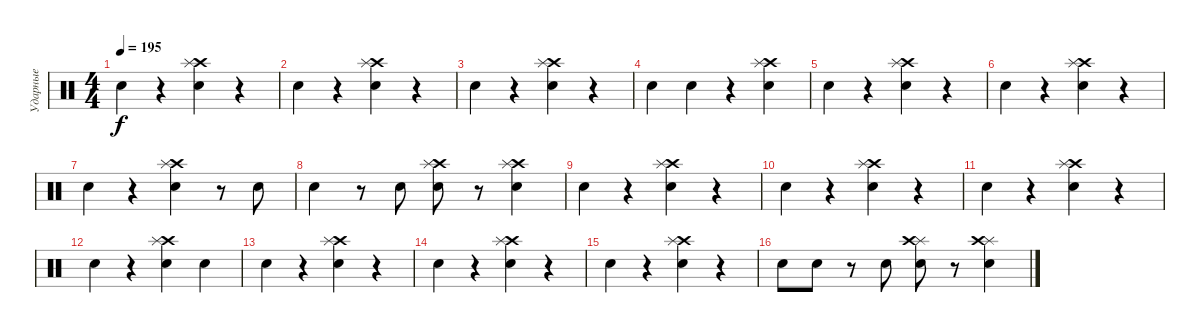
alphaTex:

\track ("Ударные" "Ударные") {instrument percussion}
\staff {score}
\articulation defaults
\ts (4 4)
\tempo 195
\clef neutral
\ks c "Snare (hit) 2".4{dy f}
r.4 ("Snare (hit) 2" "Crash high (hit)" "Splash (hit)").4 r.4 |
"Snare (hit) 2".4 r.4 ("Snare (hit) 2" "Crash high (hit)" "Splash (hit)").4 r.4 |
"Snare (hit) 2".4 r.4 ("Snare (hit) 2" "Crash high (hit)" "Splash (hit)").4 r.4 |
"Snare (hit) 2".4 "Snare (hit) 2".4 r.4 ("Snare (hit) 2" "Crash high (hit)" "Splash (hit)").4 |
"Snare (hit) 2".4 r.4 ("Snare (hit) 2" "Crash high (hit)" "Splash (hit)").4 r.4 |
"Snare (hit) 2".4 r.4 ("Snare (hit) 2" "Crash high (hit)" "Splash (hit)").4 r.4 |
"Snare (hit) 2".4 r.4 ("Snare (hit) 2" "Crash high (hit)" "Splash (hit)").4 r.8 "Snare (hit) 2".8 |
"Snare (hit) 2".4 r.8 "Snare (hit) 2".8 ("Snare (hit) 2" "Crash high (hit)" "Splash (hit)").8 r.8 ("Snare (hit) 2" "Crash high (hit)" "Splash (hit)").4 |
"Snare (hit) 2".4 r.4 ("Snare (hit) 2" "Crash high (hit)" "Splash (hit)").4 r.4 |
"Snare (hit) 2".4 r.4 ("Snare (hit) 2" "Crash high (hit)" "Splash (hit)").4 r.4 |
"Snare (hit) 2".4 r.4 ("Snare (hit) 2" "Crash high (hit)" "Splash (hit)").4 r.4 |
"Snare (hit) 2".4 r.4 ("Snare (hit) 2" "Crash high (hit)" "Splash (hit)").4 "Snare (hit) 2".4 |
"Snare (hit) 2".4 r.4 ("Snare (hit) 2" "Crash high (hit)" "Splash (hit)").4 r.4 |
"Snare (hit) 2".4 r.4 ("Snare (hit) 2" "Crash high (hit)" "Splash (hit)").4 r.4 |
"Snare (hit) 2".4 r.4 ("Snare (hit) 2" "Crash high (hit)" "Splash (hit)").4 r.4 |
"Snare (hit) 2".8 "Snare (hit) 2".8 r.8 "Snare (hit) 2".8 ("Snare (hit) 2" "Splash (hit)" "Crash high (hit)").8 r.8 ("Snare (hit) 2" "Splash (hit)" "Crash high (hit)").4
